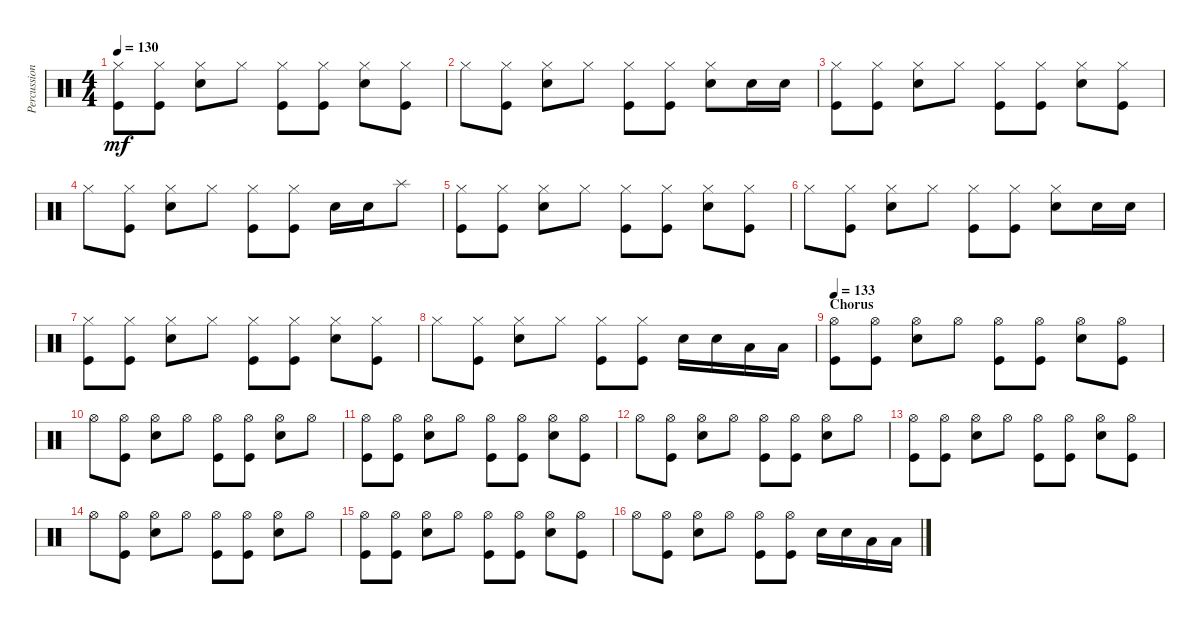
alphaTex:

\track ("Percussion" "Percussion") {instrument percussion}
\staff {score}
\articulation defaults
\ts (4 4)
\tempo 130
\clef neutral
\ks c
("Hi-Hat (closed)" "Kick (hit)").8{dy mf} ("Hi-Hat (closed)" "Kick (hit)").8 ("Hi-Hat (closed)" "Snare (hit) 2").8 "Hi-Hat (closed)".8 ("Hi-Hat (closed)" "Kick (hit)").8 ("Hi-Hat (closed)" "Kick (hit)").8 ("Hi-Hat (closed)" "Snare (hit) 2").8 ("Hi-Hat (closed)" "Kick (hit)").8 |
"Hi-Hat (closed)".8 ("Hi-Hat (closed)" "Kick (hit)").8 ("Hi-Hat (closed)" "Snare (hit) 2").8 "Hi-Hat (closed)".8 ("Hi-Hat (closed)" "Kick (hit)").8 ("Hi-Hat (closed)" "Kick (hit)").8 ("Hi-Hat (closed)" "Snare (hit) 2").8 "Snare (hit) 2".16 "Snare (hit) 2".16 |
("Hi-Hat (closed)" "Kick (hit)").8 ("Hi-Hat (closed)" "Kick (hit)").8 ("Hi-Hat (closed)" "Snare (hit) 2").8 "Hi-Hat (closed)".8 ("Hi-Hat (closed)" "Kick (hit)").8 ("Hi-Hat (closed)" "Kick (hit)").8 ("Hi-Hat (closed)" "Snare (hit) 2").8 ("Hi-Hat (closed)" "Kick (hit)").8 |
"Hi-Hat (closed)".8 ("Hi-Hat (closed)" "Kick (hit)").8 ("Hi-Hat (closed)" "Snare (hit) 2").8 "Hi-Hat (closed)".8 ("Hi-Hat (closed)" "Kick (hit)").8 ("Hi-Hat (closed)" "Kick (hit)").8 "Snare (hit) 2".16 "Snare (hit) 2".16 "Splash (hit)".8 |
("Hi-Hat (closed)" "Kick (hit)").8 ("Hi-Hat (closed)" "Kick (hit)").8 ("Hi-Hat (closed)" "Snare (hit) 2").8 "Hi-Hat (closed)".8 ("Hi-Hat (closed)" "Kick (hit)").8 ("Hi-Hat (closed)" "Kick (hit)").8 ("Hi-Hat (closed)" "Snare (hit) 2").8 ("Hi-Hat (closed)" "Kick (hit)").8 |
"Hi-Hat (closed)".8 ("Hi-Hat (closed)" "Kick (hit)").8 ("Hi-Hat (closed)" "Snare (hit) 2").8 "Hi-Hat (closed)".8 ("Hi-Hat (closed)" "Kick (hit)").8 ("Hi-Hat (closed)" "Kick (hit)").8 ("Hi-Hat (closed)" "Snare (hit) 2").8 "Snare (hit) 2".16 "Snare (hit) 2".16 |
("Hi-Hat (closed)" "Kick (hit)").8 ("Hi-Hat (closed)" "Kick (hit)").8 ("Hi-Hat (closed)" "Snare (hit) 2").8 "Hi-Hat (closed)".8 ("Hi-Hat (closed)" "Kick (hit)").8 ("Hi-Hat (closed)" "Kick (hit)").8 ("Hi-Hat (closed)" "Snare (hit) 2").8 ("Hi-Hat (closed)" "Kick (hit)").8 |
"Hi-Hat (closed)".8 ("Hi-Hat (closed)" "Kick (hit)").8 ("Hi-Hat (closed)" "Snare (hit) 2").8 "Hi-Hat (closed)".8 ("Hi-Hat (closed)" "Kick (hit)").8 ("Hi-Hat (closed)" "Kick (hit)").8 "Snare (hit) 2".16 "Snare (hit) 2".16 "Low Tom (hit)".16 "Low Tom (hit)".16 |
\section ("" "Chorus")
\tempo 133
("Hi-Hat (open)" "Kick (hit)").8 ("Hi-Hat (open)" "Kick (hit)").8 ("Hi-Hat (open)" "Snare (hit) 2").8 "Hi-Hat (open)".8 ("Hi-Hat (open)" "Kick (hit)").8 ("Hi-Hat (open)" "Kick (hit)").8 ("Hi-Hat (open)" "Snare (hit) 2").8 ("Hi-Hat (open)" "Kick (hit)").8 |
"Hi-Hat (open)".8 ("Hi-Hat (open)" "Kick (hit)").8 ("Hi-Hat (open)" "Snare (hit) 2").8 "Hi-Hat (open)".8 ("Hi-Hat (open)" "Kick (hit)").8 ("Hi-Hat (open)" "Kick (hit)").8 ("Hi-Hat (open)" "Snare (hit) 2").8 "Hi-Hat (open)".8 |
("Hi-Hat (open)" "Kick (hit)").8 ("Hi-Hat (open)" "Kick (hit)").8 ("Hi-Hat (open)" "Snare (hit) 2").8 "Hi-Hat (open)".8 ("Hi-Hat (open)" "Kick (hit)").8 ("Hi-Hat (open)" "Kick (hit)").8 ("Hi-Hat (open)" "Snare (hit) 2").8 ("Hi-Hat (open)" "Kick (hit)").8 |
"Hi-Hat (open)".8 ("Hi-Hat (open)" "Kick (hit)").8 ("Hi-Hat (open)" "Snare (hit) 2").8 "Hi-Hat (open)".8 ("Hi-Hat (open)" "Kick (hit)").8 ("Hi-Hat (open)" "Kick (hit)").8 ("Hi-Hat (open)" "Snare (hit) 2").8 "Hi-Hat (open)".8 |
("Hi-Hat (open)" "Kick (hit)").8 ("Hi-Hat (open)" "Kick (hit)").8 ("Hi-Hat (open)" "Snare (hit) 2").8 "Hi-Hat (open)".8 ("Hi-Hat (open)" "Kick (hit)").8 ("Hi-Hat (open)" "Kick (hit)").8 ("Hi-Hat (open)" "Snare (hit) 2").8 ("Hi-Hat (open)" "Kick (hit)").8 |
"Hi-Hat (open)".8 ("Hi-Hat (open)" "Kick (hit)").8 ("Hi-Hat (open)" "Snare (hit) 2").8 "Hi-Hat (open)".8 ("Hi-Hat (open)" "Kick (hit)").8 ("Hi-Hat (open)" "Kick (hit)").8 ("Hi-Hat (open)" "Snare (hit) 2").8 "Hi-Hat (open)".8 |
("Hi-Hat (open)" "Kick (hit)").8 ("Hi-Hat (open)" "Kick (hit)").8 ("Hi-Hat (open)" "Snare (hit) 2").8 "Hi-Hat (open)".8 ("Hi-Hat (open)" "Kick (hit)").8 ("Hi-Hat (open)" "Kick (hit)").8 ("Hi-Hat (open)" "Snare (hit) 2").8 ("Hi-Hat (open)" "Kick (hit)").8 |
"Hi-Hat (open)".8 ("Hi-Hat (open)" "Kick (hit)").8 ("Hi-Hat (open)" "Snare (hit) 2").8 "Hi-Hat (open)".8 ("Hi-Hat (open)" "Kick (hit)").8 ("Hi-Hat (open)" "Kick (hit)").8 "Snare (hit) 2".16 "Snare (hit) 2".16 "Low Tom (hit)".16 "Low Tom (hit)".16
